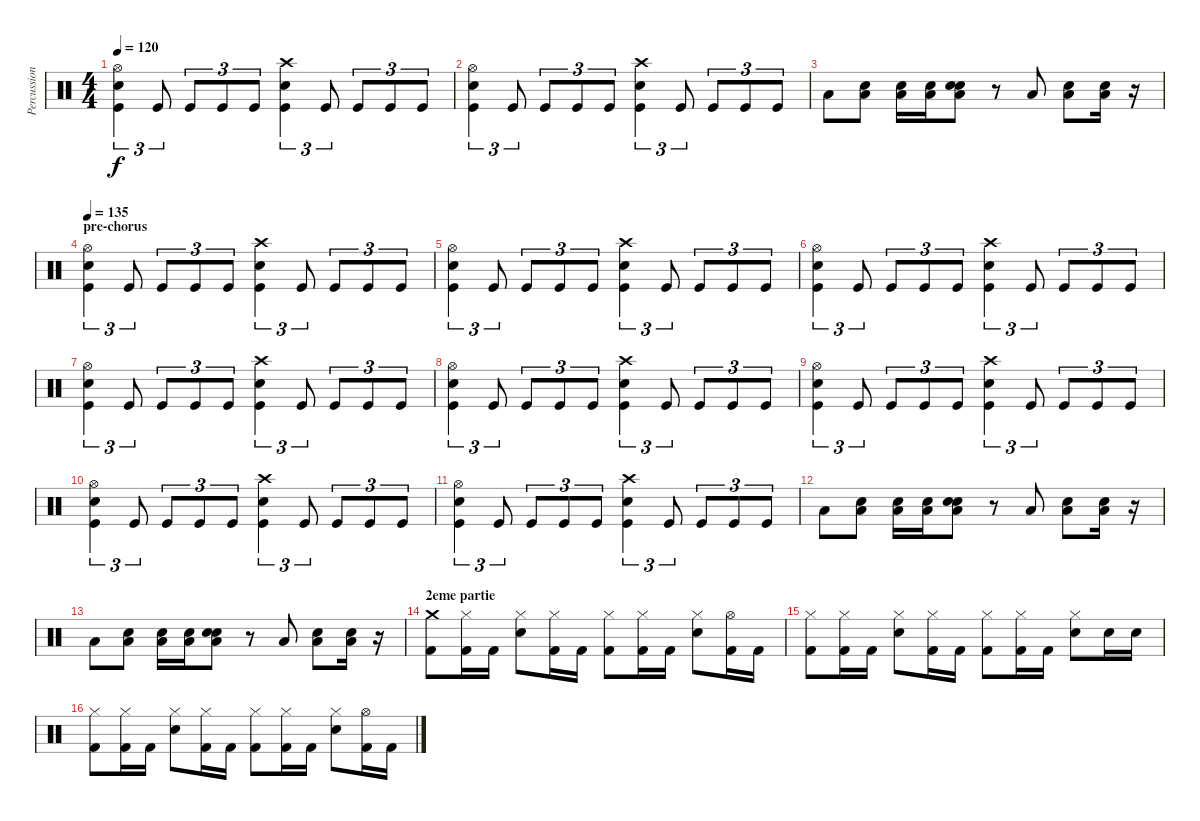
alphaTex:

\track ("Percussions" "Percussion") {instrument percussion}
\staff {score}
\articulation defaults
\ts (4 4)
\tempo 120
\clef neutral
\ks c
("Hi-Hat (open)" "Snare (hit) 2" "Kick (hit)").4{tu (3 2) dy f} "Kick (hit)".8{tu (3 2)} "Kick (hit)".8{tu (3 2)} "Kick (hit)".8{tu (3 2)} "Kick (hit)".8{tu (3 2)} ("Crash high (hit)" "Snare (hit) 2" "Kick (hit)").4{tu (3 2)} "Kick (hit)".8{tu (3 2)} "Kick (hit)".8{tu (3 2)} "Kick (hit)".8{tu (3 2)} "Kick (hit)".8{tu (3 2)} |
("Hi-Hat (open)" "Snare (hit) 2" "Kick (hit)").4{tu (3 2)} "Kick (hit)".8{tu (3 2)} "Kick (hit)".8{tu (3 2)} "Kick (hit)".8{tu (3 2)} "Kick (hit)".8{tu (3 2)} ("Crash high (hit)" "Snare (hit) 2" "Kick (hit)").4{tu (3 2)} "Kick (hit)".8{tu (3 2)} "Kick (hit)".8{tu (3 2)} "Kick (hit)".8{tu (3 2)} "Kick (hit)".8{tu (3 2)} |
"Low Floor Tom (hit)".8 ("Snare (hit)" "Low Floor Tom (hit)").8 ("Snare (hit)" "Low Floor Tom (hit)").16 ("Snare (hit)" "Low Floor Tom (hit)").16 ("Snare (hit)" "Electric Snare (hit)" "Low Floor Tom (hit)").8 r.8 "Low Floor Tom (hit)".8 ("Snare (hit)" "Low Floor Tom (hit)").8 ("Snare (hit)" "Low Floor Tom (hit)").16 r.16 |
\section ("" "pre-chorus")
\tempo 135
("Hi-Hat (open)" "Snare (hit) 2" "Kick (hit)").4{tu (3 2)} "Kick (hit)".8{tu (3 2)} "Kick (hit)".8{tu (3 2)} "Kick (hit)".8{tu (3 2)} "Kick (hit)".8{tu (3 2)} ("Crash high (hit)" "Snare (hit) 2" "Kick (hit)").4{tu (3 2)} "Kick (hit)".8{tu (3 2)} "Kick (hit)".8{tu (3 2)} "Kick (hit)".8{tu (3 2)} "Kick (hit)".8{tu (3 2)} |
("Hi-Hat (open)" "Snare (hit) 2" "Kick (hit)").4{tu (3 2)} "Kick (hit)".8{tu (3 2)} "Kick (hit)".8{tu (3 2)} "Kick (hit)".8{tu (3 2)} "Kick (hit)".8{tu (3 2)} ("Crash high (hit)" "Snare (hit) 2" "Kick (hit)").4{tu (3 2)} "Kick (hit)".8{tu (3 2)} "Kick (hit)".8{tu (3 2)} "Kick (hit)".8{tu (3 2)} "Kick (hit)".8{tu (3 2)} |
("Hi-Hat (open)" "Snare (hit) 2" "Kick (hit)").4{tu (3 2)} "Kick (hit)".8{tu (3 2)} "Kick (hit)".8{tu (3 2)} "Kick (hit)".8{tu (3 2)} "Kick (hit)".8{tu (3 2)} ("Crash high (hit)" "Snare (hit) 2" "Kick (hit)").4{tu (3 2)} "Kick (hit)".8{tu (3 2)} "Kick (hit)".8{tu (3 2)} "Kick (hit)".8{tu (3 2)} "Kick (hit)".8{tu (3 2)} |
("Hi-Hat (open)" "Snare (hit) 2" "Kick (hit)").4{tu (3 2)} "Kick (hit)".8{tu (3 2)} "Kick (hit)".8{tu (3 2)} "Kick (hit)".8{tu (3 2)} "Kick (hit)".8{tu (3 2)} ("Crash high (hit)" "Snare (hit) 2" "Kick (hit)").4{tu (3 2)} "Kick (hit)".8{tu (3 2)} "Kick (hit)".8{tu (3 2)} "Kick (hit)".8{tu (3 2)} "Kick (hit)".8{tu (3 2)} |
("Hi-Hat (open)" "Snare (hit) 2" "Kick (hit)").4{tu (3 2)} "Kick (hit)".8{tu (3 2)} "Kick (hit)".8{tu (3 2)} "Kick (hit)".8{tu (3 2)} "Kick (hit)".8{tu (3 2)} ("Crash high (hit)" "Snare (hit) 2" "Kick (hit)").4{tu (3 2)} "Kick (hit)".8{tu (3 2)} "Kick (hit)".8{tu (3 2)} "Kick (hit)".8{tu (3 2)} "Kick (hit)".8{tu (3 2)} |
("Hi-Hat (open)" "Snare (hit) 2" "Kick (hit)").4{tu (3 2)} "Kick (hit)".8{tu (3 2)} "Kick (hit)".8{tu (3 2)} "Kick (hit)".8{tu (3 2)} "Kick (hit)".8{tu (3 2)} ("Crash high (hit)" "Snare (hit) 2" "Kick (hit)").4{tu (3 2)} "Kick (hit)".8{tu (3 2)} "Kick (hit)".8{tu (3 2)} "Kick (hit)".8{tu (3 2)} "Kick (hit)".8{tu (3 2)} |
("Hi-Hat (open)" "Snare (hit) 2" "Kick (hit)").4{tu (3 2)} "Kick (hit)".8{tu (3 2)} "Kick (hit)".8{tu (3 2)} "Kick (hit)".8{tu (3 2)} "Kick (hit)".8{tu (3 2)} ("Crash high (hit)" "Snare (hit) 2" "Kick (hit)").4{tu (3 2)} "Kick (hit)".8{tu (3 2)} "Kick (hit)".8{tu (3 2)} "Kick (hit)".8{tu (3 2)} "Kick (hit)".8{tu (3 2)} |
("Hi-Hat (open)" "Snare (hit) 2" "Kick (hit)").4{tu (3 2)} "Kick (hit)".8{tu (3 2)} "Kick (hit)".8{tu (3 2)} "Kick (hit)".8{tu (3 2)} "Kick (hit)".8{tu (3 2)} ("Crash high (hit)" "Snare (hit) 2" "Kick (hit)").4{tu (3 2)} "Kick (hit)".8{tu (3 2)} "Kick (hit)".8{tu (3 2)} "Kick (hit)".8{tu (3 2)} "Kick (hit)".8{tu (3 2)} |
"Low Floor Tom (hit)".8 ("Snare (hit)" "Low Floor Tom (hit)").8 ("Snare (hit)" "Low Floor Tom (hit)").16 ("Snare (hit)" "Low Floor Tom (hit)").16 ("Snare (hit)" "Electric Snare (hit)" "Low Floor Tom (hit)").8 r.8 "Low Floor Tom (hit)".8 ("Snare (hit)" "Low Floor Tom (hit)").8 ("Snare (hit)" "Low Floor Tom (hit)").16 r.16 |
"Low Floor Tom (hit)".8 ("Snare (hit)" "Low Floor Tom (hit)").8 ("Snare (hit)" "Low Floor Tom (hit)").16 ("Snare (hit)" "Low Floor Tom (hit)").16 ("Snare (hit)" "Electric Snare (hit)" "Low Floor Tom (hit)").8 r.8 "Low Floor Tom (hit)".8 ("Snare (hit)" "Low Floor Tom (hit)").8 ("Snare (hit)" "Low Floor Tom (hit)").16 r.16 |
\section ("" "2eme partie")
("Crash medium (hit)" "Kick (hit) 2").8 ("Hi-Hat (closed)" "Kick (hit) 2").16 "Kick (hit) 2".16 ("Hi-Hat (closed)" "Snare (hit) 2").8 ("Hi-Hat (closed)" "Kick (hit) 2").16 "Kick (hit) 2".16 ("Hi-Hat (closed)" "Kick (hit) 2").8 ("Hi-Hat (closed)" "Kick (hit) 2").16 "Kick (hit) 2".16 ("Hi-Hat (closed)" "Snare (hit) 2").8 ("Hi-Hat (open)" "Kick (hit) 2").16 "Kick (hit) 2".16 |
("Hi-Hat (closed)" "Kick (hit) 2").8 ("Hi-Hat (closed)" "Kick (hit) 2").16 "Kick (hit) 2".16 ("Hi-Hat (closed)" "Snare (hit) 2").8 ("Hi-Hat (closed)" "Kick (hit) 2").16 "Kick (hit) 2".16 ("Hi-Hat (closed)" "Kick (hit) 2").8 ("Hi-Hat (closed)" "Kick (hit) 2").16 "Kick (hit) 2".16 ("Hi-Hat (closed)" "Snare (hit) 2").8 "Snare (hit) 2".16 "Snare (hit) 2".16 |
("Hi-Hat (closed)" "Kick (hit) 2").8 ("Hi-Hat (closed)" "Kick (hit) 2").16 "Kick (hit) 2".16 ("Hi-Hat (closed)" "Snare (hit) 2").8 ("Hi-Hat (closed)" "Kick (hit) 2").16 "Kick (hit) 2".16 ("Hi-Hat (closed)" "Kick (hit) 2").8 ("Hi-Hat (closed)" "Kick (hit) 2").16 "Kick (hit) 2".16 ("Hi-Hat (closed)" "Snare (hit) 2").8 ("Hi-Hat (open)" "Kick (hit) 2").16 "Kick (hit) 2".16
